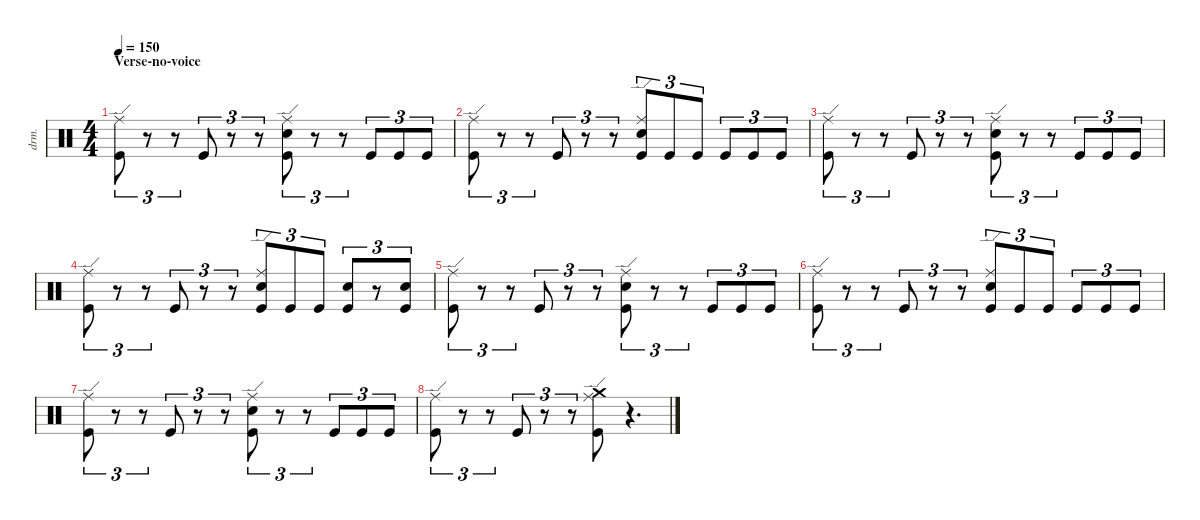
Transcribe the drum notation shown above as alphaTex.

\defaultSystemsLayout 4
\hideDynamics
\bracketExtendMode nobrackets
\otherSystemsTrackNameOrientation horizontal
\track ("Drumkit" "drm.") {solo instrument percussion}
\staff {score}
\articulation defaults
\ts (4 4)
\section ("" "Verse-no-voice")
\scale
1.07061
\tempo 150
\accidentals auto
\clef neutral
\ottava regular
\simile none
\ks aminor
("Kick (hit)" "Ride (edge)").8{tu (3 2) dy mf beam Down} r.8{tu (3 2) beam Down} r.8{tu (3 2) beam Down} "Kick (hit)".8{tu (3 2) beam Up} r.8{tu (3 2) beam Up} r.8{tu (3 2) beam Up} ("Kick (hit)" "Ride (edge)" "Snare (hit) 2").8{tu (3 2) beam Down} r.8{tu (3 2) beam Down} r.8{tu (3 2) beam Down} "Kick (hit)".8{tu (3 2) beam Up} "Kick (hit)".8{tu (3 2) beam Up} "Kick (hit)".8{tu (3 2) beam Up} |
\scale
0.976463 ("Kick (hit)" "Ride (edge)").8{tu (3 2) beam Down} r.8{tu (3 2) beam Down} r.8{tu (3 2) beam Down} "Kick (hit)".8{tu (3 2) beam Up} r.8{tu (3 2) beam Up} r.8{tu (3 2) beam Up} ("Kick (hit)" "Ride (edge)" "Snare (hit) 2").8{tu (3 2) beam Up} "Kick (hit)".8{tu (3 2) beam Up} "Kick (hit)".8{tu (3 2) beam Up} "Kick (hit)".8{tu (3 2) beam Up} "Kick (hit)".8{tu (3 2) beam Up} "Kick (hit)".8{tu (3 2) beam Up} |
\scale
0.976463 ("Kick (hit)" "Ride (edge)").8{tu (3 2) beam Down} r.8{tu (3 2) beam Down} r.8{tu (3 2) beam Down} "Kick (hit)".8{tu (3 2) beam Up} r.8{tu (3 2) beam Up} r.8{tu (3 2) beam Up} ("Kick (hit)" "Ride (edge)" "Snare (hit) 2").8{tu (3 2) beam Down} r.8{tu (3 2) beam Down} r.8{tu (3 2) beam Down} "Kick (hit)".8{tu (3 2) beam Up} "Kick (hit)".8{tu (3 2) beam Up} "Kick (hit)".8{tu (3 2) beam Up} |
\scale
0.976463 ("Kick (hit)" "Ride (edge)").8{tu (3 2) beam Down} r.8{tu (3 2) beam Down} r.8{tu (3 2) beam Down} "Kick (hit)".8{tu (3 2) beam Up} r.8{tu (3 2) beam Up} r.8{tu (3 2) beam Up} ("Kick (hit)" "Snare (hit) 2" "Ride (edge)").8{tu (3 2) beam Up} "Kick (hit)".8{tu (3 2) beam Up} "Kick (hit)".8{tu (3 2) beam Up} ("Kick (hit)" "Snare (hit) 2").8{tu (3 2) beam Up} r.8{tu (3 2) beam Up} ("Kick (hit)" "Snare (hit) 2").8{tu (3 2) beam Up} |
\scale
1.07061 ("Kick (hit)" "Ride (edge)").8{tu (3 2) beam Down} r.8{tu (3 2) beam Down} r.8{tu (3 2) beam Down} "Kick (hit)".8{tu (3 2) beam Up} r.8{tu (3 2) beam Up} r.8{tu (3 2) beam Up} ("Kick (hit)" "Ride (edge)" "Snare (hit) 2").8{tu (3 2) beam Down} r.8{tu (3 2) beam Down} r.8{tu (3 2) beam Down} "Kick (hit)".8{tu (3 2) beam Up} "Kick (hit)".8{tu (3 2) beam Up} "Kick (hit)".8{tu (3 2) beam Up} |
\scale
0.976463 ("Kick (hit)" "Ride (edge)").8{tu (3 2) beam Down} r.8{tu (3 2) beam Down} r.8{tu (3 2) beam Down} "Kick (hit)".8{tu (3 2) beam Up} r.8{tu (3 2) beam Up} r.8{tu (3 2) beam Up} ("Kick (hit)" "Ride (edge)" "Snare (hit) 2").8{tu (3 2) beam Up} "Kick (hit)".8{tu (3 2) beam Up} "Kick (hit)".8{tu (3 2) beam Up} "Kick (hit)".8{tu (3 2) beam Up} "Kick (hit)".8{tu (3 2) beam Up} "Kick (hit)".8{tu (3 2) beam Up} |
\scale
0.976463 ("Kick (hit)" "Ride (edge)").8{tu (3 2) beam Down} r.8{tu (3 2) beam Down} r.8{tu (3 2) beam Down} "Kick (hit)".8{tu (3 2) beam Up} r.8{tu (3 2) beam Up} r.8{tu (3 2) beam Up} ("Kick (hit)" "Ride (edge)" "Snare (hit) 2").8{tu (3 2) beam Down} r.8{tu (3 2) beam Down} r.8{tu (3 2) beam Down} "Kick (hit)".8{tu (3 2) beam Up} "Kick (hit)".8{tu (3 2) beam Up} "Kick (hit)".8{tu (3 2) beam Up} |
\scale
0.976463 ("Kick (hit)" "Ride (edge)").8{tu (3 2) beam Down} r.8{tu (3 2) beam Down} r.8{tu (3 2) beam Down} "Kick (hit)".8{tu (3 2) beam Up} r.8{tu (3 2) beam Up} r.8{tu (3 2) beam Up} ("Kick (hit)" "Ride (edge)" "Crash medium (hit)").8{beam Down} r.4{d beam Down} |
\scale
1.07031
